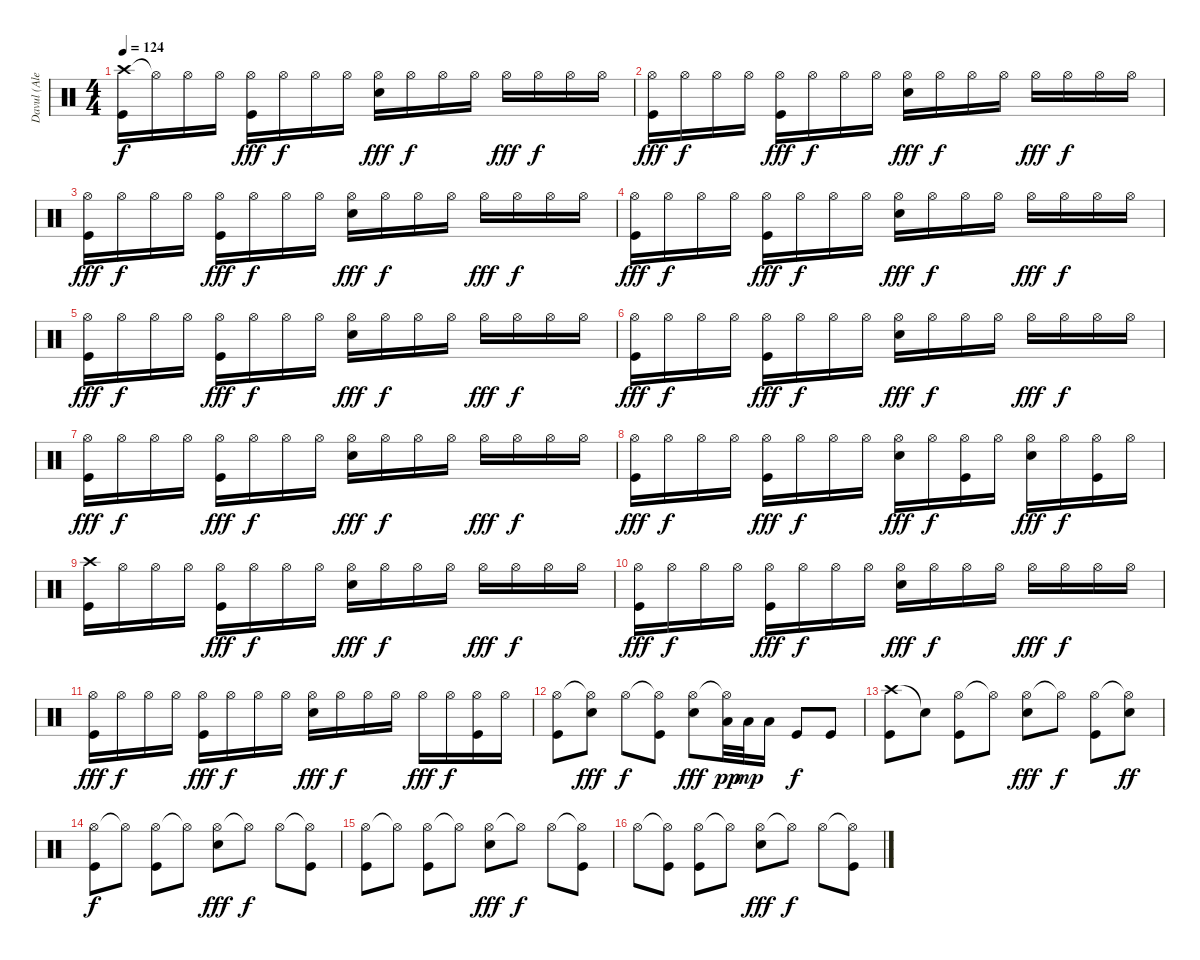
\track ("Davul (Alen)" "Davul (Ale") {instrument percussion}
\staff {score}
\articulation defaults
\ts (4 4)
\tempo 124
\clef neutral
\ks c
("Crash high (hit)" "Kick (hit)").16{dy f} "Hi-Hat (open)"{t}.16 "Hi-Hat (open)".16 "Hi-Hat (open)".16 ("Hi-Hat (open)" "Kick (hit)").16{dy fff} "Hi-Hat (open)".16{dy f} "Hi-Hat (open)".16 "Hi-Hat (open)".16 ("Hi-Hat (open)" "Electric Snare (hit)").16{dy fff} "Hi-Hat (open)".16{dy f} "Hi-Hat (open)".16 "Hi-Hat (open)".16 "Hi-Hat (open)".16{dy fff} "Hi-Hat (open)".16{dy f} "Hi-Hat (open)".16 "Hi-Hat (open)".16 |
("Hi-Hat (open)" "Kick (hit)").16{dy fff} "Hi-Hat (open)".16{dy f} "Hi-Hat (open)".16 "Hi-Hat (open)".16 ("Hi-Hat (open)" "Kick (hit)").16{dy fff} "Hi-Hat (open)".16{dy f} "Hi-Hat (open)".16 "Hi-Hat (open)".16 ("Hi-Hat (open)" "Electric Snare (hit)").16{dy fff} "Hi-Hat (open)".16{dy f} "Hi-Hat (open)".16 "Hi-Hat (open)".16 "Hi-Hat (open)".16{dy fff} "Hi-Hat (open)".16{dy f} "Hi-Hat (open)".16 "Hi-Hat (open)".16 |
("Hi-Hat (open)" "Kick (hit)").16{dy fff} "Hi-Hat (open)".16{dy f} "Hi-Hat (open)".16 "Hi-Hat (open)".16 ("Hi-Hat (open)" "Kick (hit)").16{dy fff} "Hi-Hat (open)".16{dy f} "Hi-Hat (open)".16 "Hi-Hat (open)".16 ("Hi-Hat (open)" "Electric Snare (hit)").16{dy fff} "Hi-Hat (open)".16{dy f} "Hi-Hat (open)".16 "Hi-Hat (open)".16 "Hi-Hat (open)".16{dy fff} "Hi-Hat (open)".16{dy f} "Hi-Hat (open)".16 "Hi-Hat (open)".16 |
("Hi-Hat (open)" "Kick (hit)").16{dy fff} "Hi-Hat (open)".16{dy f} "Hi-Hat (open)".16 "Hi-Hat (open)".16 ("Hi-Hat (open)" "Kick (hit)").16{dy fff} "Hi-Hat (open)".16{dy f} "Hi-Hat (open)".16 "Hi-Hat (open)".16 ("Hi-Hat (open)" "Electric Snare (hit)").16{dy fff} "Hi-Hat (open)".16{dy f} "Hi-Hat (open)".16 "Hi-Hat (open)".16 "Hi-Hat (open)".16{dy fff} "Hi-Hat (open)".16{dy f} "Hi-Hat (open)".16 "Hi-Hat (open)".16 |
("Hi-Hat (open)" "Kick (hit)").16{dy fff} "Hi-Hat (open)".16{dy f} "Hi-Hat (open)".16 "Hi-Hat (open)".16 ("Hi-Hat (open)" "Kick (hit)").16{dy fff} "Hi-Hat (open)".16{dy f} "Hi-Hat (open)".16 "Hi-Hat (open)".16 ("Hi-Hat (open)" "Electric Snare (hit)").16{dy fff} "Hi-Hat (open)".16{dy f} "Hi-Hat (open)".16 "Hi-Hat (open)".16 "Hi-Hat (open)".16{dy fff} "Hi-Hat (open)".16{dy f} "Hi-Hat (open)".16 "Hi-Hat (open)".16 |
("Hi-Hat (open)" "Kick (hit)").16{dy fff} "Hi-Hat (open)".16{dy f} "Hi-Hat (open)".16 "Hi-Hat (open)".16 ("Hi-Hat (open)" "Kick (hit)").16{dy fff} "Hi-Hat (open)".16{dy f} "Hi-Hat (open)".16 "Hi-Hat (open)".16 ("Hi-Hat (open)" "Electric Snare (hit)").16{dy fff} "Hi-Hat (open)".16{dy f} "Hi-Hat (open)".16 "Hi-Hat (open)".16 "Hi-Hat (open)".16{dy fff} "Hi-Hat (open)".16{dy f} "Hi-Hat (open)".16 "Hi-Hat (open)".16 |
("Hi-Hat (open)" "Kick (hit)").16{dy fff} "Hi-Hat (open)".16{dy f} "Hi-Hat (open)".16 "Hi-Hat (open)".16 ("Hi-Hat (open)" "Kick (hit)").16{dy fff} "Hi-Hat (open)".16{dy f} "Hi-Hat (open)".16 "Hi-Hat (open)".16 ("Hi-Hat (open)" "Electric Snare (hit)").16{dy fff} "Hi-Hat (open)".16{dy f} "Hi-Hat (open)".16 "Hi-Hat (open)".16 "Hi-Hat (open)".16{dy fff} "Hi-Hat (open)".16{dy f} "Hi-Hat (open)".16 "Hi-Hat (open)".16 |
("Hi-Hat (open)" "Kick (hit)").16{dy fff} "Hi-Hat (open)".16{dy f} "Hi-Hat (open)".16 "Hi-Hat (open)".16 ("Hi-Hat (open)" "Kick (hit)").16{dy fff} "Hi-Hat (open)".16{dy f} "Hi-Hat (open)".16 "Hi-Hat (open)".16 ("Hi-Hat (open)" "Electric Snare (hit)").16{dy fff} "Hi-Hat (open)".16{dy f} ("Hi-Hat (open)" "Kick (hit)").16 "Hi-Hat (open)".16 ("Hi-Hat (open)" "Electric Snare (hit)").16{dy fff} "Hi-Hat (open)".16{dy f} ("Hi-Hat (open)" "Kick (hit)").16 "Hi-Hat (open)".16 |
("Crash high (hit)" "Kick (hit)").16 "Hi-Hat (open)".16 "Hi-Hat (open)".16 "Hi-Hat (open)".16 ("Hi-Hat (open)" "Kick (hit)").16{dy fff} "Hi-Hat (open)".16{dy f} "Hi-Hat (open)".16 "Hi-Hat (open)".16 ("Hi-Hat (open)" "Electric Snare (hit)").16{dy fff} "Hi-Hat (open)".16{dy f} "Hi-Hat (open)".16 "Hi-Hat (open)".16 "Hi-Hat (open)".16{dy fff} "Hi-Hat (open)".16{dy f} "Hi-Hat (open)".16 "Hi-Hat (open)".16 |
("Hi-Hat (open)" "Kick (hit)").16{dy fff} "Hi-Hat (open)".16{dy f} "Hi-Hat (open)".16 "Hi-Hat (open)".16 ("Hi-Hat (open)" "Kick (hit)").16{dy fff} "Hi-Hat (open)".16{dy f} "Hi-Hat (open)".16 "Hi-Hat (open)".16 ("Hi-Hat (open)" "Electric Snare (hit)").16{dy fff} "Hi-Hat (open)".16{dy f} "Hi-Hat (open)".16 "Hi-Hat (open)".16 "Hi-Hat (open)".16{dy fff} "Hi-Hat (open)".16{dy f} "Hi-Hat (open)".16 "Hi-Hat (open)".16 |
("Hi-Hat (open)" "Kick (hit)").16{dy fff} "Hi-Hat (open)".16{dy f} "Hi-Hat (open)".16 "Hi-Hat (open)".16 ("Hi-Hat (open)" "Kick (hit)").16{dy fff} "Hi-Hat (open)".16{dy f} "Hi-Hat (open)".16 "Hi-Hat (open)".16 ("Hi-Hat (open)" "Electric Snare (hit)").16{dy fff} "Hi-Hat (open)".16{dy f} "Hi-Hat (open)".16 "Hi-Hat (open)".16 "Hi-Hat (open)".16{dy fff} "Hi-Hat (open)".16{dy f} ("Hi-Hat (open)" "Kick (hit)").16 "Hi-Hat (open)".16 |
("Hi-Hat (open)" "Kick (hit)").8 ("Hi-Hat (open)"{t} "Electric Snare (hit)").8{dy fff} "Hi-Hat (open)".8{dy f} ("Hi-Hat (open)"{t} "Kick (hit)").8 ("Hi-Hat (open)" "Electric Snare (hit)").8{dy fff} ("Hi-Hat (open)"{t} "Low Floor Tom (hit)").32{dy pp} "Low Floor Tom (hit)".32{dy mp} "Low Floor Tom (hit)".16 "Kick (hit)".8{dy f} "Kick (hit)".8 |
("Crash high (hit)" "Kick (hit)").8 "Snare (hit)"{t}.8 ("Hi-Hat (open)" "Kick (hit)").8 "Hi-Hat (open)"{t}.8 ("Hi-Hat (open)" "Electric Snare (hit)").8{dy fff} "Hi-Hat (open)"{t}.8{dy f} ("Hi-Hat (open)" "Kick (hit)").8 ("Hi-Hat (open)"{t} "Electric Snare (hit)").8{dy ff} |
("Hi-Hat (open)" "Kick (hit)").8{dy f} "Hi-Hat (open)"{t}.8 ("Hi-Hat (open)" "Kick (hit)").8 "Hi-Hat (open)"{t}.8 ("Hi-Hat (open)" "Electric Snare (hit)").8{dy fff} "Hi-Hat (open)"{t}.8{dy f} "Hi-Hat (open)".8 ("Hi-Hat (open)"{t} "Kick (hit)").8 |
("Hi-Hat (open)" "Kick (hit)").8 "Hi-Hat (open)"{t}.8 ("Hi-Hat (open)" "Kick (hit)").8 "Hi-Hat (open)"{t}.8 ("Hi-Hat (open)" "Electric Snare (hit)").8{dy fff} "Hi-Hat (open)"{t}.8{dy f} "Hi-Hat (open)".8 ("Hi-Hat (open)"{t} "Kick (hit)").8 |
"Hi-Hat (open)".8 ("Hi-Hat (open)"{t} "Kick (hit)").8 ("Hi-Hat (open)" "Kick (hit)").8 "Hi-Hat (open)"{t}.8 ("Hi-Hat (open)" "Electric Snare (hit)").8{dy fff} "Hi-Hat (open)"{t}.8{dy f} "Hi-Hat (open)".8 ("Hi-Hat (open)"{t} "Kick (hit)").8
